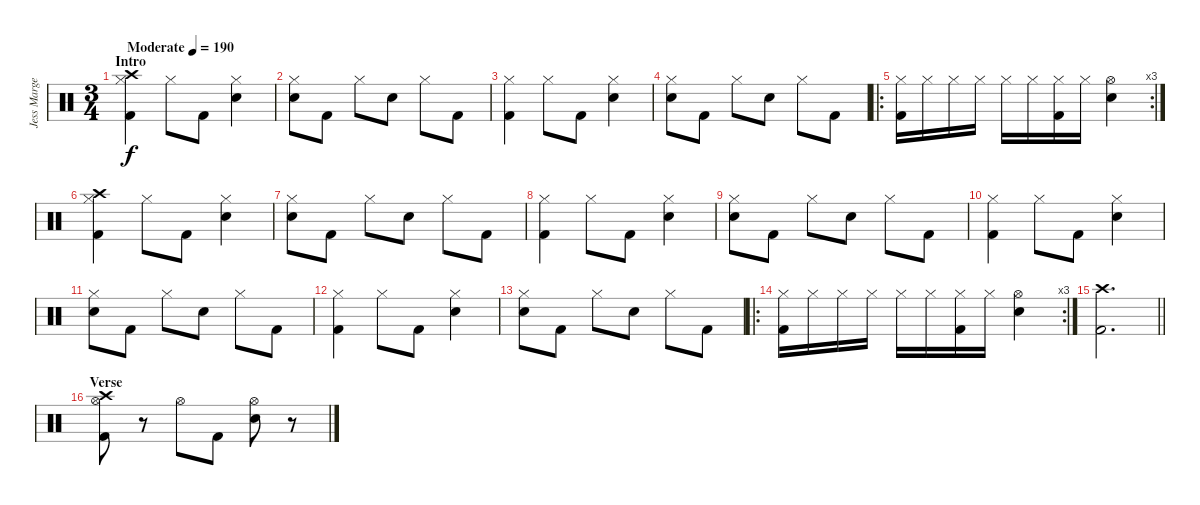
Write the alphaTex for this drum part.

\track ("Jess Margera" "Jess Marge") {instrument percussion}
\staff {score}
\articulation defaults
\ts (3 4)
\section ("" "Intro")
\tempo (190 "Moderate")
\clef neutral
\ks c
("Crash high (hit)" "Hi-Hat (closed)" "Kick (hit) 2").4{dy f} "Hi-Hat (closed)".8 "Kick (hit) 2".8 ("Hi-Hat (closed)" "Electric Snare (hit)").4 |
("Hi-Hat (closed)" "Electric Snare (hit)").8 "Kick (hit) 2".8 "Hi-Hat (closed)".8 "Electric Snare (hit)".8 "Hi-Hat (closed)".8 "Kick (hit) 2".8 |
("Hi-Hat (closed)" "Kick (hit) 2").4 "Hi-Hat (closed)".8 "Kick (hit) 2".8 ("Hi-Hat (closed)" "Electric Snare (hit)").4 |
("Hi-Hat (closed)" "Electric Snare (hit)").8 "Kick (hit) 2".8 "Hi-Hat (closed)".8 "Electric Snare (hit)".8 "Hi-Hat (closed)".8 "Kick (hit) 2".8 |
\ro
\rc 3
("Hi-Hat (closed)" "Kick (hit) 2").16 "Hi-Hat (closed)".16 "Hi-Hat (closed)".16 "Hi-Hat (closed)".16 "Hi-Hat (closed)".16 "Hi-Hat (closed)".16 ("Hi-Hat (closed)" "Kick (hit) 2").16 "Hi-Hat (closed)".16 ("Hi-Hat (open)" "Electric Snare (hit)").4 |
("Crash high (hit)" "Hi-Hat (closed)" "Kick (hit) 2").4 "Hi-Hat (closed)".8 "Kick (hit) 2".8 ("Hi-Hat (closed)" "Electric Snare (hit)").4 |
("Hi-Hat (closed)" "Electric Snare (hit)").8 "Kick (hit) 2".8 "Hi-Hat (closed)".8 "Electric Snare (hit)".8 "Hi-Hat (closed)".8 "Kick (hit) 2".8 |
("Hi-Hat (closed)" "Kick (hit) 2").4 "Hi-Hat (closed)".8 "Kick (hit) 2".8 ("Hi-Hat (closed)" "Electric Snare (hit)").4 |
("Hi-Hat (closed)" "Electric Snare (hit)").8 "Kick (hit) 2".8 "Hi-Hat (closed)".8 "Electric Snare (hit)".8 "Hi-Hat (closed)".8 "Kick (hit) 2".8 |
("Hi-Hat (closed)" "Kick (hit) 2").4 "Hi-Hat (closed)".8 "Kick (hit) 2".8 ("Hi-Hat (closed)" "Electric Snare (hit)").4 |
("Hi-Hat (closed)" "Electric Snare (hit)").8 "Kick (hit) 2".8 "Hi-Hat (closed)".8 "Electric Snare (hit)".8 "Hi-Hat (closed)".8 "Kick (hit) 2".8 |
("Hi-Hat (closed)" "Kick (hit) 2").4 "Hi-Hat (closed)".8 "Kick (hit) 2".8 ("Hi-Hat (closed)" "Electric Snare (hit)").4 |
("Hi-Hat (closed)" "Electric Snare (hit)").8 "Kick (hit) 2".8 "Hi-Hat (closed)".8 "Electric Snare (hit)".8 "Hi-Hat (closed)".8 "Kick (hit) 2".8 |
\ro
\rc 3
("Hi-Hat (closed)" "Kick (hit) 2").16 "Hi-Hat (closed)".16 "Hi-Hat (closed)".16 "Hi-Hat (closed)".16 "Hi-Hat (closed)".16 "Hi-Hat (closed)".16 ("Hi-Hat (closed)" "Kick (hit) 2").16 "Hi-Hat (closed)".16 ("Hi-Hat (open)" "Electric Snare (hit)").4 |
\barLineRight lightlight
("Crash high (hit)" "Kick (hit) 2").2{d} |
\section ("" "Verse")
("Crash high (hit)" "Hi-Hat (open)" "Kick (hit) 2").8 r.8 "Hi-Hat (open)".8 "Kick (hit) 2".8 ("Hi-Hat (open)" "Electric Snare (hit)").8 r.8
